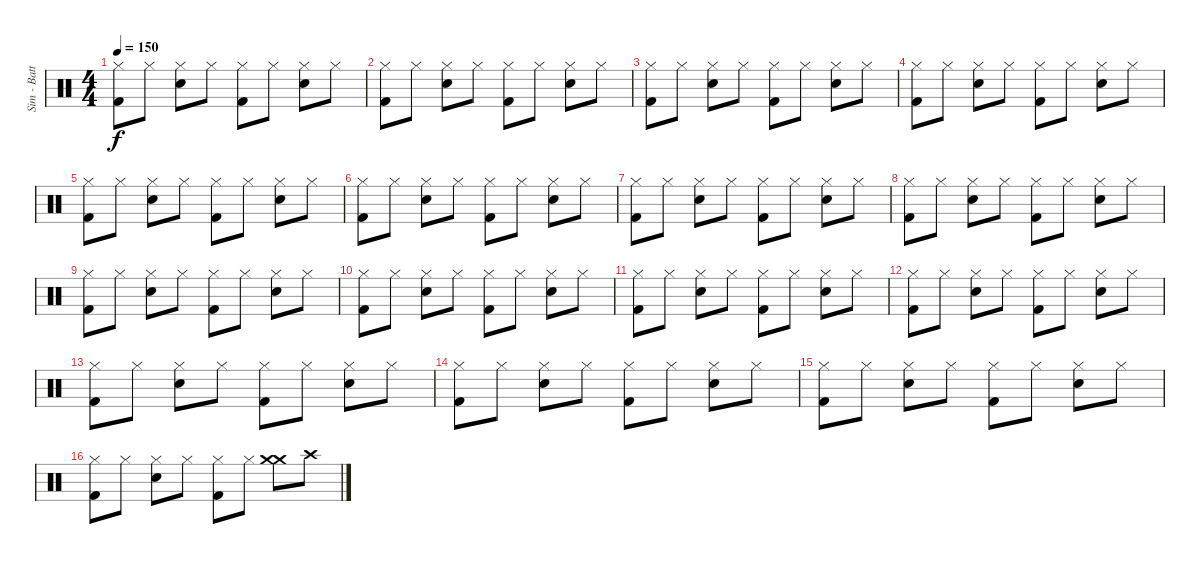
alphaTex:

\track ("Sim - Batterie-" "Sim - Batt") {instrument percussion}
\staff {score}
\articulation defaults
\ts (4 4)
\tempo 150
\clef neutral
\ks c
("Hi-Hat (closed)" "Kick (hit) 2").8{dy f} "Hi-Hat (closed)".8 ("Hi-Hat (closed)" "Snare (hit) 2").8 "Hi-Hat (closed)".8 ("Hi-Hat (closed)" "Kick (hit) 2").8 "Hi-Hat (closed)".8 ("Hi-Hat (closed)" "Snare (hit) 2").8 "Hi-Hat (closed)".8 |
("Hi-Hat (closed)" "Kick (hit) 2").8 "Hi-Hat (closed)".8 ("Hi-Hat (closed)" "Snare (hit) 2").8 "Hi-Hat (closed)".8 ("Hi-Hat (closed)" "Kick (hit) 2").8 "Hi-Hat (closed)".8 ("Hi-Hat (closed)" "Snare (hit) 2").8 "Hi-Hat (closed)".8 |
("Hi-Hat (closed)" "Kick (hit) 2").8 "Hi-Hat (closed)".8 ("Hi-Hat (closed)" "Snare (hit) 2").8 "Hi-Hat (closed)".8 ("Hi-Hat (closed)" "Kick (hit) 2").8 "Hi-Hat (closed)".8 ("Hi-Hat (closed)" "Snare (hit) 2").8 "Hi-Hat (closed)".8 |
("Hi-Hat (closed)" "Kick (hit) 2").8 "Hi-Hat (closed)".8 ("Hi-Hat (closed)" "Snare (hit) 2").8 "Hi-Hat (closed)".8 ("Hi-Hat (closed)" "Kick (hit) 2").8 "Hi-Hat (closed)".8 ("Hi-Hat (closed)" "Snare (hit) 2").8 "Hi-Hat (closed)".8 |
("Hi-Hat (closed)" "Kick (hit) 2").8 "Hi-Hat (closed)".8 ("Hi-Hat (closed)" "Snare (hit) 2").8 "Hi-Hat (closed)".8 ("Hi-Hat (closed)" "Kick (hit) 2").8 "Hi-Hat (closed)".8 ("Hi-Hat (closed)" "Snare (hit) 2").8 "Hi-Hat (closed)".8 |
("Hi-Hat (closed)" "Kick (hit) 2").8 "Hi-Hat (closed)".8 ("Hi-Hat (closed)" "Snare (hit) 2").8 "Hi-Hat (closed)".8 ("Hi-Hat (closed)" "Kick (hit) 2").8 "Hi-Hat (closed)".8 ("Hi-Hat (closed)" "Snare (hit) 2").8 "Hi-Hat (closed)".8 |
("Hi-Hat (closed)" "Kick (hit) 2").8 "Hi-Hat (closed)".8 ("Hi-Hat (closed)" "Snare (hit) 2").8 "Hi-Hat (closed)".8 ("Hi-Hat (closed)" "Kick (hit) 2").8 "Hi-Hat (closed)".8 ("Hi-Hat (closed)" "Snare (hit) 2").8 "Hi-Hat (closed)".8 |
("Hi-Hat (closed)" "Kick (hit) 2").8 "Hi-Hat (closed)".8 ("Hi-Hat (closed)" "Snare (hit) 2").8 "Hi-Hat (closed)".8 ("Hi-Hat (closed)" "Kick (hit) 2").8 "Hi-Hat (closed)".8 ("Hi-Hat (closed)" "Snare (hit) 2").8 "Hi-Hat (closed)".8 |
("Hi-Hat (closed)" "Kick (hit) 2").8 "Hi-Hat (closed)".8 ("Hi-Hat (closed)" "Snare (hit) 2").8 "Hi-Hat (closed)".8 ("Hi-Hat (closed)" "Kick (hit) 2").8 "Hi-Hat (closed)".8 ("Hi-Hat (closed)" "Snare (hit) 2").8 "Hi-Hat (closed)".8 |
("Hi-Hat (closed)" "Kick (hit) 2").8 "Hi-Hat (closed)".8 ("Hi-Hat (closed)" "Snare (hit) 2").8 "Hi-Hat (closed)".8 ("Hi-Hat (closed)" "Kick (hit) 2").8 "Hi-Hat (closed)".8 ("Hi-Hat (closed)" "Snare (hit) 2").8 "Hi-Hat (closed)".8 |
("Hi-Hat (closed)" "Kick (hit) 2").8 "Hi-Hat (closed)".8 ("Hi-Hat (closed)" "Snare (hit) 2").8 "Hi-Hat (closed)".8 ("Hi-Hat (closed)" "Kick (hit) 2").8 "Hi-Hat (closed)".8 ("Hi-Hat (closed)" "Snare (hit) 2").8 "Hi-Hat (closed)".8 |
("Hi-Hat (closed)" "Kick (hit) 2").8 "Hi-Hat (closed)".8 ("Hi-Hat (closed)" "Snare (hit) 2").8 "Hi-Hat (closed)".8 ("Hi-Hat (closed)" "Kick (hit) 2").8 "Hi-Hat (closed)".8 ("Hi-Hat (closed)" "Snare (hit) 2").8 "Hi-Hat (closed)".8 |
("Hi-Hat (closed)" "Kick (hit) 2").8 "Hi-Hat (closed)".8 ("Hi-Hat (closed)" "Snare (hit) 2").8 "Hi-Hat (closed)".8 ("Hi-Hat (closed)" "Kick (hit) 2").8 "Hi-Hat (closed)".8 ("Hi-Hat (closed)" "Snare (hit) 2").8 "Hi-Hat (closed)".8 |
("Hi-Hat (closed)" "Kick (hit) 2").8 "Hi-Hat (closed)".8 ("Hi-Hat (closed)" "Snare (hit) 2").8 "Hi-Hat (closed)".8 ("Hi-Hat (closed)" "Kick (hit) 2").8 "Hi-Hat (closed)".8 ("Hi-Hat (closed)" "Snare (hit) 2").8 "Hi-Hat (closed)".8 |
("Hi-Hat (closed)" "Kick (hit) 2").8 "Hi-Hat (closed)".8 ("Hi-Hat (closed)" "Snare (hit) 2").8 "Hi-Hat (closed)".8 ("Hi-Hat (closed)" "Kick (hit) 2").8 "Hi-Hat (closed)".8 ("Hi-Hat (closed)" "Snare (hit) 2").8 "Hi-Hat (closed)".8 |
("Hi-Hat (closed)" "Kick (hit) 2").8 "Hi-Hat (closed)".8 ("Hi-Hat (closed)" "Snare (hit) 2").8 "Hi-Hat (closed)".8 ("Hi-Hat (closed)" "Kick (hit) 2").8 "Hi-Hat (closed)".8 ("Crash medium (hit)" "Crash medium (hit)").8 "Crash high (hit)".8
